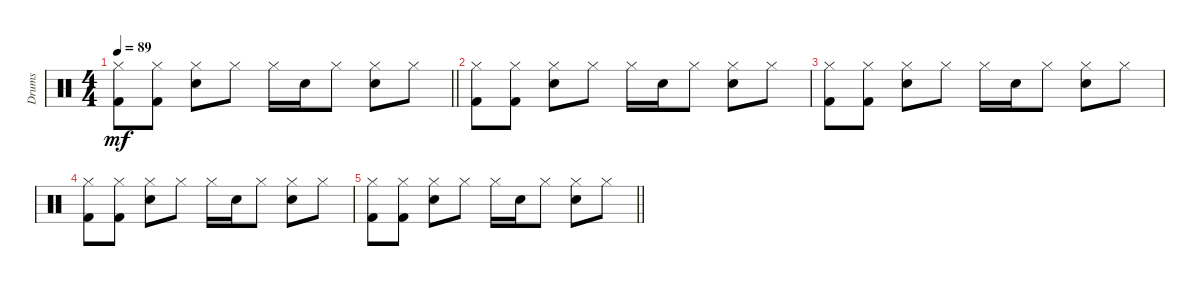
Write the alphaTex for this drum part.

\track ("Drums" "Drums") {instrument percussion}
\staff {score}
\articulation defaults
\ts (4 4)
\tempo 89
\clef neutral
\barLineRight lightlight
\ks c
("Hi-Hat (closed)" "Kick (hit) 2").8{dy mf} ("Hi-Hat (closed)" "Kick (hit) 2").8 ("Hi-Hat (closed)" "Snare (hit) 2").8 "Hi-Hat (closed)".8 "Hi-Hat (closed)".16 "Snare (hit) 2".16 "Hi-Hat (closed)".8 ("Hi-Hat (closed)" "Snare (hit) 2").8 "Hi-Hat (closed)".8 |
("Hi-Hat (closed)" "Kick (hit) 2").8 ("Hi-Hat (closed)" "Kick (hit) 2").8 ("Hi-Hat (closed)" "Snare (hit) 2").8 "Hi-Hat (closed)".8 "Hi-Hat (closed)".16 "Snare (hit) 2".16 "Hi-Hat (closed)".8 ("Hi-Hat (closed)" "Snare (hit) 2").8 "Hi-Hat (closed)".8 |
("Hi-Hat (closed)" "Kick (hit) 2").8 ("Hi-Hat (closed)" "Kick (hit) 2").8 ("Hi-Hat (closed)" "Snare (hit) 2").8 "Hi-Hat (closed)".8 "Hi-Hat (closed)".16 "Snare (hit) 2".16 "Hi-Hat (closed)".8 ("Hi-Hat (closed)" "Snare (hit) 2").8 "Hi-Hat (closed)".8 |
("Hi-Hat (closed)" "Kick (hit) 2").8 ("Hi-Hat (closed)" "Kick (hit) 2").8 ("Hi-Hat (closed)" "Snare (hit) 2").8 "Hi-Hat (closed)".8 "Hi-Hat (closed)".16 "Snare (hit) 2".16 "Hi-Hat (closed)".8 ("Hi-Hat (closed)" "Snare (hit) 2").8 "Hi-Hat (closed)".8 |
\barLineRight lightlight
("Hi-Hat (closed)" "Kick (hit) 2").8 ("Hi-Hat (closed)" "Kick (hit) 2").8 ("Hi-Hat (closed)" "Snare (hit) 2").8 "Hi-Hat (closed)".8 "Hi-Hat (closed)".16 "Snare (hit) 2".16 "Hi-Hat (closed)".8 ("Hi-Hat (closed)" "Snare (hit) 2").8 "Hi-Hat (closed)".8
